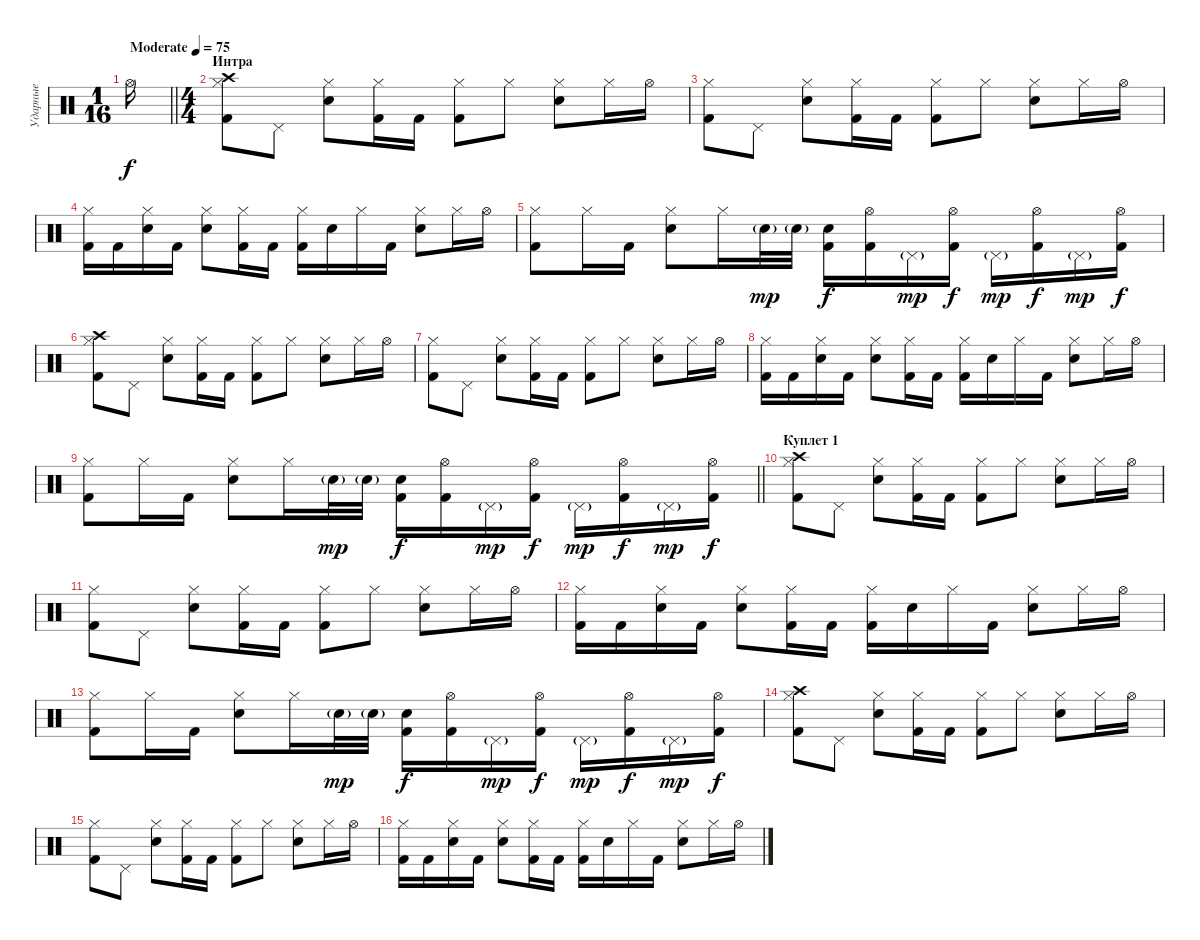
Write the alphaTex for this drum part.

\track ("Ударные" "Ударные") {instrument percussion}
\staff {score}
\articulation defaults
\ts (1 16)
\tempo (75 "Moderate")
\clef neutral
\barLineRight lightlight
\ks c "Hi-Hat (open)".16{dy f}
|
\ts (4 4)
\section ("" "Интра")
("Crash high (hit)" "Hi-Hat (closed)" "Kick (hit) 2").8 "Pedal Hi-Hat (hit)".8 ("Hi-Hat (closed)" "Electric Snare (hit)").8 ("Hi-Hat (closed)" "Kick (hit) 2").16 "Kick (hit) 2".16 ("Hi-Hat (closed)" "Kick (hit) 2").8 "Hi-Hat (closed)".8 ("Hi-Hat (closed)" "Electric Snare (hit)").8 "Hi-Hat (closed)".16 "Hi-Hat (open)".16 |
("Hi-Hat (closed)" "Kick (hit) 2").8 "Pedal Hi-Hat (hit)".8 ("Hi-Hat (closed)" "Electric Snare (hit)").8 ("Hi-Hat (closed)" "Kick (hit) 2").16 "Kick (hit) 2".16 ("Hi-Hat (closed)" "Kick (hit) 2").8 "Hi-Hat (closed)".8 ("Hi-Hat (closed)" "Electric Snare (hit)").8 "Hi-Hat (closed)".16 "Hi-Hat (open)".16 |
("Hi-Hat (closed)" "Kick (hit) 2").16 "Kick (hit) 2".16 ("Hi-Hat (closed)" "Electric Snare (hit)").16 "Kick (hit) 2".16 ("Hi-Hat (closed)" "Electric Snare (hit)").8 ("Hi-Hat (closed)" "Kick (hit) 2").16 "Kick (hit) 2".16 ("Hi-Hat (closed)" "Kick (hit) 2").16 "Electric Snare (hit)".16 "Hi-Hat (closed)".16 "Kick (hit) 2".16 ("Hi-Hat (closed)" "Electric Snare (hit)").8 "Hi-Hat (closed)".16 "Hi-Hat (open)".16 |
("Hi-Hat (closed)" "Kick (hit) 2").8 "Hi-Hat (closed)".16 "Kick (hit) 2".16 ("Hi-Hat (closed)" "Electric Snare (hit)").8 "Hi-Hat (closed)".16 "Electric Snare (hit)"{g}.32{dy mp} "Electric Snare (hit)"{g}.32 ("Electric Snare (hit)" "Kick (hit) 2").16{dy f} ("Hi-Hat (open)" "Kick (hit) 2").16 "Pedal Hi-Hat (hit)"{g}.16{dy mp} ("Hi-Hat (open)" "Kick (hit) 2").16{dy f} "Pedal Hi-Hat (hit)"{g}.16{dy mp} ("Hi-Hat (open)" "Kick (hit) 2").16{dy f} "Pedal Hi-Hat (hit)"{g}.16{dy mp} ("Hi-Hat (open)" "Kick (hit) 2").16{dy f} |
("Crash high (hit)" "Hi-Hat (closed)" "Kick (hit) 2").8 "Pedal Hi-Hat (hit)".8 ("Hi-Hat (closed)" "Electric Snare (hit)").8 ("Hi-Hat (closed)" "Kick (hit) 2").16 "Kick (hit) 2".16 ("Hi-Hat (closed)" "Kick (hit) 2").8 "Hi-Hat (closed)".8 ("Hi-Hat (closed)" "Electric Snare (hit)").8 "Hi-Hat (closed)".16 "Hi-Hat (open)".16 |
("Hi-Hat (closed)" "Kick (hit) 2").8 "Pedal Hi-Hat (hit)".8 ("Hi-Hat (closed)" "Electric Snare (hit)").8 ("Hi-Hat (closed)" "Kick (hit) 2").16 "Kick (hit) 2".16 ("Hi-Hat (closed)" "Kick (hit) 2").8 "Hi-Hat (closed)".8 ("Hi-Hat (closed)" "Electric Snare (hit)").8 "Hi-Hat (closed)".16 "Hi-Hat (open)".16 |
("Hi-Hat (closed)" "Kick (hit) 2").16 "Kick (hit) 2".16 ("Hi-Hat (closed)" "Electric Snare (hit)").16 "Kick (hit) 2".16 ("Hi-Hat (closed)" "Electric Snare (hit)").8 ("Hi-Hat (closed)" "Kick (hit) 2").16 "Kick (hit) 2".16 ("Hi-Hat (closed)" "Kick (hit) 2").16 "Electric Snare (hit)".16 "Hi-Hat (closed)".16 "Kick (hit) 2".16 ("Hi-Hat (closed)" "Electric Snare (hit)").8 "Hi-Hat (closed)".16 "Hi-Hat (open)".16 |
\barLineRight lightlight
("Hi-Hat (closed)" "Kick (hit) 2").8 "Hi-Hat (closed)".16 "Kick (hit) 2".16 ("Hi-Hat (closed)" "Electric Snare (hit)").8 "Hi-Hat (closed)".16 "Electric Snare (hit)"{g}.32{dy mp} "Electric Snare (hit)"{g}.32 ("Electric Snare (hit)" "Kick (hit) 2").16{dy f} ("Hi-Hat (open)" "Kick (hit) 2").16 "Pedal Hi-Hat (hit)"{g}.16{dy mp} ("Hi-Hat (open)" "Kick (hit) 2").16{dy f} "Pedal Hi-Hat (hit)"{g}.16{dy mp} ("Hi-Hat (open)" "Kick (hit) 2").16{dy f} "Pedal Hi-Hat (hit)"{g}.16{dy mp} ("Hi-Hat (open)" "Kick (hit) 2").16{dy f} |
\section ("" "Куплет 1")
("Crash high (hit)" "Hi-Hat (closed)" "Kick (hit) 2").8 "Pedal Hi-Hat (hit)".8 ("Hi-Hat (closed)" "Electric Snare (hit)").8 ("Hi-Hat (closed)" "Kick (hit) 2").16 "Kick (hit) 2".16 ("Hi-Hat (closed)" "Kick (hit) 2").8 "Hi-Hat (closed)".8 ("Hi-Hat (closed)" "Electric Snare (hit)").8 "Hi-Hat (closed)".16 "Hi-Hat (open)".16 |
("Hi-Hat (closed)" "Kick (hit) 2").8 "Pedal Hi-Hat (hit)".8 ("Hi-Hat (closed)" "Electric Snare (hit)").8 ("Hi-Hat (closed)" "Kick (hit) 2").16 "Kick (hit) 2".16 ("Hi-Hat (closed)" "Kick (hit) 2").8 "Hi-Hat (closed)".8 ("Hi-Hat (closed)" "Electric Snare (hit)").8 "Hi-Hat (closed)".16 "Hi-Hat (open)".16 |
("Hi-Hat (closed)" "Kick (hit) 2").16 "Kick (hit) 2".16 ("Hi-Hat (closed)" "Electric Snare (hit)").16 "Kick (hit) 2".16 ("Hi-Hat (closed)" "Electric Snare (hit)").8 ("Hi-Hat (closed)" "Kick (hit) 2").16 "Kick (hit) 2".16 ("Hi-Hat (closed)" "Kick (hit) 2").16 "Electric Snare (hit)".16 "Hi-Hat (closed)".16 "Kick (hit) 2".16 ("Hi-Hat (closed)" "Electric Snare (hit)").8 "Hi-Hat (closed)".16 "Hi-Hat (open)".16 |
("Hi-Hat (closed)" "Kick (hit) 2").8 "Hi-Hat (closed)".16 "Kick (hit) 2".16 ("Hi-Hat (closed)" "Electric Snare (hit)").8 "Hi-Hat (closed)".16 "Electric Snare (hit)"{g}.32{dy mp} "Electric Snare (hit)"{g}.32 ("Electric Snare (hit)" "Kick (hit) 2").16{dy f} ("Hi-Hat (open)" "Kick (hit) 2").16 "Pedal Hi-Hat (hit)"{g}.16{dy mp} ("Hi-Hat (open)" "Kick (hit) 2").16{dy f} "Pedal Hi-Hat (hit)"{g}.16{dy mp} ("Hi-Hat (open)" "Kick (hit) 2").16{dy f} "Pedal Hi-Hat (hit)"{g}.16{dy mp} ("Hi-Hat (open)" "Kick (hit) 2").16{dy f} |
("Crash high (hit)" "Hi-Hat (closed)" "Kick (hit) 2").8 "Pedal Hi-Hat (hit)".8 ("Hi-Hat (closed)" "Electric Snare (hit)").8 ("Hi-Hat (closed)" "Kick (hit) 2").16 "Kick (hit) 2".16 ("Hi-Hat (closed)" "Kick (hit) 2").8 "Hi-Hat (closed)".8 ("Hi-Hat (closed)" "Electric Snare (hit)").8 "Hi-Hat (closed)".16 "Hi-Hat (open)".16 |
("Hi-Hat (closed)" "Kick (hit) 2").8 "Pedal Hi-Hat (hit)".8 ("Hi-Hat (closed)" "Electric Snare (hit)").8 ("Hi-Hat (closed)" "Kick (hit) 2").16 "Kick (hit) 2".16 ("Hi-Hat (closed)" "Kick (hit) 2").8 "Hi-Hat (closed)".8 ("Hi-Hat (closed)" "Electric Snare (hit)").8 "Hi-Hat (closed)".16 "Hi-Hat (open)".16 |
("Hi-Hat (closed)" "Kick (hit) 2").16 "Kick (hit) 2".16 ("Hi-Hat (closed)" "Electric Snare (hit)").16 "Kick (hit) 2".16 ("Hi-Hat (closed)" "Electric Snare (hit)").8 ("Hi-Hat (closed)" "Kick (hit) 2").16 "Kick (hit) 2".16 ("Hi-Hat (closed)" "Kick (hit) 2").16 "Electric Snare (hit)".16 "Hi-Hat (closed)".16 "Kick (hit) 2".16 ("Hi-Hat (closed)" "Electric Snare (hit)").8 "Hi-Hat (closed)".16 "Hi-Hat (open)".16
